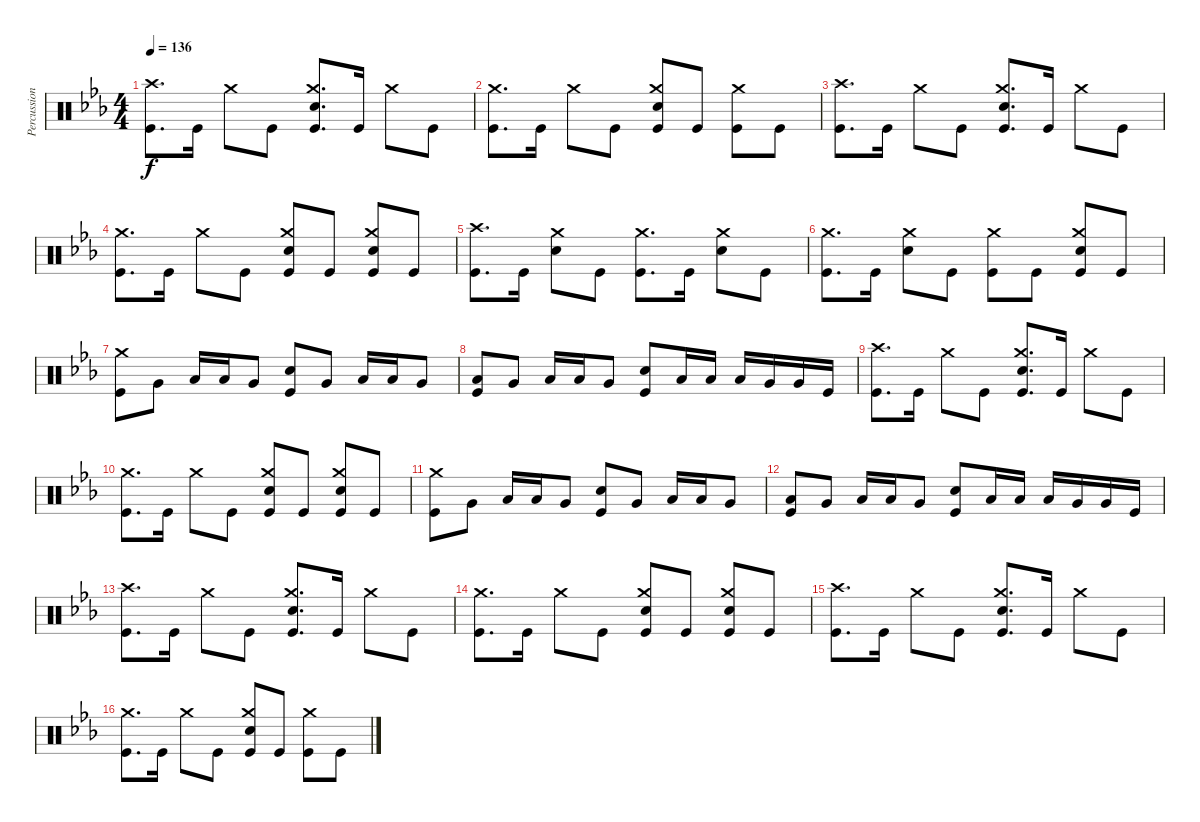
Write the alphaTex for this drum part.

\track ("Percussion" "Percussion") {instrument percussion}
\staff {score}
\articulation defaults
\ts (4 4)
\tempo 136
\clef neutral
\ks eb
("Crash high (hit)" "Kick (hit)").8{d dy f} "Kick (hit)".16 "Crash medium (hit)".8 "Kick (hit)".8 ("Crash medium (hit)" "Electric Snare (hit)" "Kick (hit)").8{d} "Kick (hit)".16 "Crash medium (hit)".8 "Kick (hit)".8 |
("Crash medium (hit)" "Kick (hit)").8{d} "Kick (hit)".16 "Crash medium (hit)".8 "Kick (hit)".8 ("Crash medium (hit)" "Electric Snare (hit)" "Kick (hit)").8 "Kick (hit)".8 ("Crash medium (hit)" "Kick (hit)").8 "Kick (hit)".8 |
("Crash high (hit)" "Kick (hit)").8{d} "Kick (hit)".16 "Crash medium (hit)".8 "Kick (hit)".8 ("Crash medium (hit)" "Electric Snare (hit)" "Kick (hit)").8{d} "Kick (hit)".16 "Crash medium (hit)".8 "Kick (hit)".8 |
("Crash medium (hit)" "Kick (hit)").8{d} "Kick (hit)".16 "Crash medium (hit)".8 "Kick (hit)".8 ("Crash medium (hit)" "Electric Snare (hit)" "Kick (hit)").8 "Kick (hit)".8 ("Crash medium (hit)" "Electric Snare (hit)" "Kick (hit)").8 "Kick (hit)".8 |
("Crash high (hit)" "Kick (hit)").8{d} "Kick (hit)".16 ("Crash medium (hit)" "Electric Snare (hit)").8 "Kick (hit)".8 ("Crash medium (hit)" "Kick (hit)").8{d} "Kick (hit)".16 ("Crash medium (hit)" "Electric Snare (hit)").8 "Kick (hit)".8 |
("Crash medium (hit)" "Kick (hit)").8{d} "Kick (hit)".16 ("Crash medium (hit)" "Electric Snare (hit)").8 "Kick (hit)".8 ("Crash medium (hit)" "Kick (hit)").8 "Kick (hit)".8 ("Crash medium (hit)" "Electric Snare (hit)" "Kick (hit)").8 "Kick (hit)".8 |
("Crash medium (hit)" "Kick (hit)").8 "Very Low Tom (hit)".8 "Low Tom (hit)".16 "Low Tom (hit)".16 "Very Low Tom (hit)".8 ("Electric Snare (hit)" "Kick (hit)").8 "Very Low Tom (hit)".8 "Low Tom (hit)".16 "Low Tom (hit)".16 "Very Low Tom (hit)".8 |
("Low Tom (hit)" "Kick (hit)").8 "Very Low Tom (hit)".8 "Low Tom (hit)".16 "Low Tom (hit)".16 "Very Low Tom (hit)".8 ("Electric Snare (hit)" "Kick (hit)").8 "Low Tom (hit)".16 "Low Tom (hit)".16 "Low Tom (hit)".16 "Very Low Tom (hit)".16 "Very Low Tom (hit)".16 "Kick (hit)".16 |
("Crash high (hit)" "Kick (hit)").8{d} "Kick (hit)".16 "Crash medium (hit)".8 "Kick (hit)".8 ("Crash medium (hit)" "Electric Snare (hit)" "Kick (hit)").8{d} "Kick (hit)".16 "Crash medium (hit)".8 "Kick (hit)".8 |
("Crash medium (hit)" "Kick (hit)").8{d} "Kick (hit)".16 "Crash medium (hit)".8 "Kick (hit)".8 ("Crash medium (hit)" "Electric Snare (hit)" "Kick (hit)").8 "Kick (hit)".8 ("Crash medium (hit)" "Electric Snare (hit)" "Kick (hit)").8 "Kick (hit)".8 |
("Crash medium (hit)" "Kick (hit)").8 "Very Low Tom (hit)".8 "Low Tom (hit)".16 "Low Tom (hit)".16 "Very Low Tom (hit)".8 ("Electric Snare (hit)" "Kick (hit)").8 "Very Low Tom (hit)".8 "Low Tom (hit)".16 "Low Tom (hit)".16 "Very Low Tom (hit)".8 |
("Low Tom (hit)" "Kick (hit)").8 "Very Low Tom (hit)".8 "Low Tom (hit)".16 "Low Tom (hit)".16 "Very Low Tom (hit)".8 ("Electric Snare (hit)" "Kick (hit)").8 "Low Tom (hit)".16 "Low Tom (hit)".16 "Low Tom (hit)".16 "Very Low Tom (hit)".16 "Very Low Tom (hit)".16 "Kick (hit)".16 |
("Crash high (hit)" "Kick (hit)").8{d} "Kick (hit)".16 "Crash medium (hit)".8 "Kick (hit)".8 ("Crash medium (hit)" "Electric Snare (hit)" "Kick (hit)").8{d} "Kick (hit)".16 "Crash medium (hit)".8 "Kick (hit)".8 |
("Crash medium (hit)" "Kick (hit)").8{d} "Kick (hit)".16 "Crash medium (hit)".8 "Kick (hit)".8 ("Crash medium (hit)" "Electric Snare (hit)" "Kick (hit)").8 "Kick (hit)".8 ("Crash medium (hit)" "Electric Snare (hit)" "Kick (hit)").8 "Kick (hit)".8 |
("Crash high (hit)" "Kick (hit)").8{d} "Kick (hit)".16 "Crash medium (hit)".8 "Kick (hit)".8 ("Crash medium (hit)" "Electric Snare (hit)" "Kick (hit)").8{d} "Kick (hit)".16 "Crash medium (hit)".8 "Kick (hit)".8 |
("Crash medium (hit)" "Kick (hit)").8{d} "Kick (hit)".16 "Crash medium (hit)".8 "Kick (hit)".8 ("Crash medium (hit)" "Electric Snare (hit)" "Kick (hit)").8 "Kick (hit)".8 ("Crash medium (hit)" "Kick (hit)").8 "Kick (hit)".8
